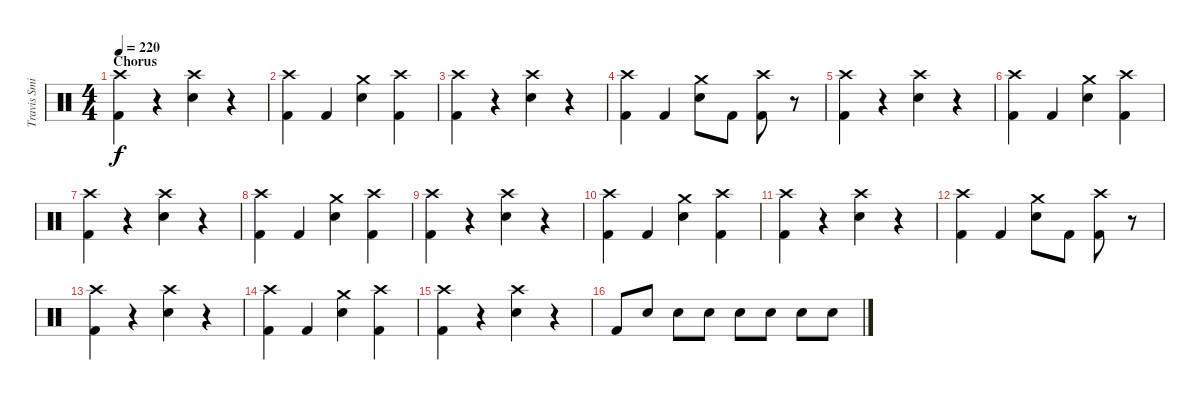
\track ("Travis Smith" "Travis Smi") {instrument percussion}
\staff {score}
\articulation defaults
\ts (4 4)
\section ("" "Chorus")
\tempo 220
\clef neutral
\ks c
("Crash high (hit)" "Kick (hit) 2").4{dy f} r.4 ("Crash high (hit)" "Electric Snare (hit)").4 r.4 |
("Crash high (hit)" "Kick (hit) 2").4 "Kick (hit) 2".4 ("Crash medium (hit)" "Electric Snare (hit)").4 ("Crash high (hit)" "Kick (hit) 2").4 |
("Crash high (hit)" "Kick (hit) 2").4 r.4 ("Crash high (hit)" "Electric Snare (hit)").4 r.4 |
("Crash high (hit)" "Kick (hit) 2").4 "Kick (hit) 2".4 ("Crash medium (hit)" "Electric Snare (hit)").8 "Kick (hit) 2".8 ("Crash high (hit)" "Kick (hit) 2").8 r.8 |
("Crash high (hit)" "Kick (hit) 2").4 r.4 ("Crash high (hit)" "Electric Snare (hit)").4 r.4 |
("Crash high (hit)" "Kick (hit) 2").4 "Kick (hit) 2".4 ("Crash medium (hit)" "Electric Snare (hit)").4 ("Crash high (hit)" "Kick (hit) 2").4 |
("Crash high (hit)" "Kick (hit) 2").4 r.4 ("Crash high (hit)" "Electric Snare (hit)").4 r.4 |
("Crash high (hit)" "Kick (hit) 2").4 "Kick (hit) 2".4 ("Crash medium (hit)" "Electric Snare (hit)").4 ("Crash high (hit)" "Kick (hit) 2").4 |
("Crash high (hit)" "Kick (hit) 2").4 r.4 ("Crash high (hit)" "Electric Snare (hit)").4 r.4 |
("Crash high (hit)" "Kick (hit) 2").4 "Kick (hit) 2".4 ("Crash medium (hit)" "Electric Snare (hit)").4 ("Crash high (hit)" "Kick (hit) 2").4 |
("Crash high (hit)" "Kick (hit) 2").4 r.4 ("Crash high (hit)" "Electric Snare (hit)").4 r.4 |
("Crash high (hit)" "Kick (hit) 2").4 "Kick (hit) 2".4 ("Crash medium (hit)" "Electric Snare (hit)").8 "Kick (hit) 2".8 ("Crash high (hit)" "Kick (hit) 2").8 r.8 |
("Crash high (hit)" "Kick (hit) 2").4 r.4 ("Crash high (hit)" "Electric Snare (hit)").4 r.4 |
("Crash high (hit)" "Kick (hit) 2").4 "Kick (hit) 2".4 ("Crash medium (hit)" "Electric Snare (hit)").4 ("Crash high (hit)" "Kick (hit) 2").4 |
("Crash high (hit)" "Kick (hit) 2").4 r.4 ("Crash high (hit)" "Electric Snare (hit)").4 r.4 |
"Kick (hit) 2".8 "Electric Snare (hit)".8 "Electric Snare (hit)".8 "Electric Snare (hit)".8 "Electric Snare (hit)".8 "Electric Snare (hit)".8 "Electric Snare (hit)".8 "Electric Snare (hit)".8
